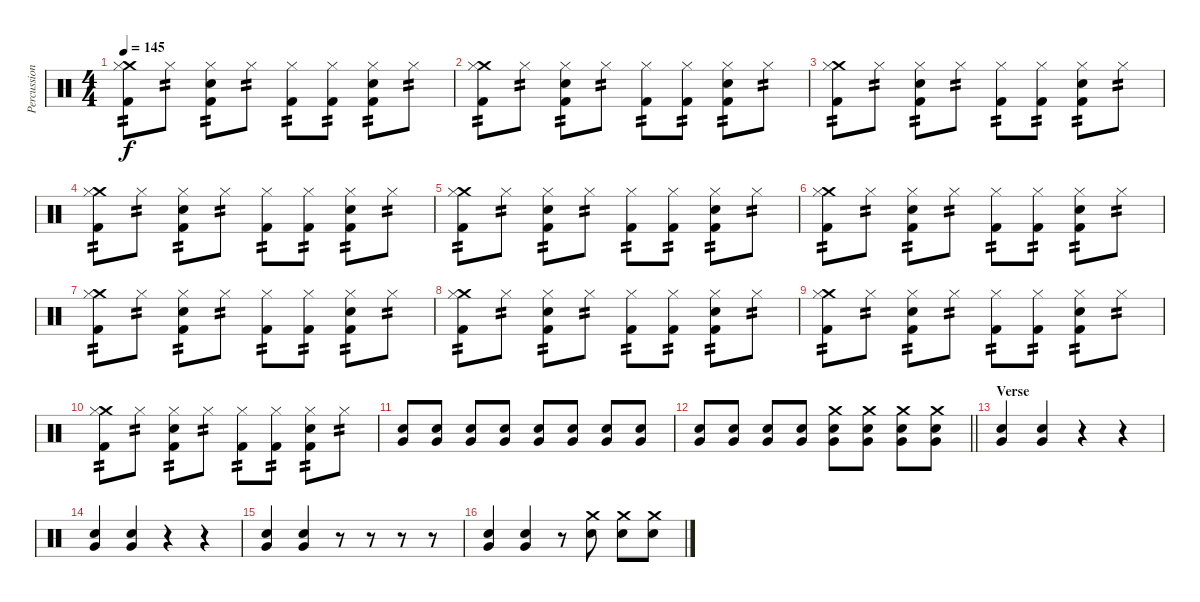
\track ("Percussion" "Percussion") {instrument percussion}
\staff {score}
\articulation defaults
\ts (4 4)
\tempo 145
\clef neutral
\ks c
("Crash medium (hit)" "Hi-Hat (closed)" "Kick (hit) 2").8{tp 2 dy f} "Hi-Hat (closed)".8{tp 2} ("Hi-Hat (closed)" "Snare (hit) 2" "Kick (hit) 2").8{tp 2} "Hi-Hat (closed)".8{tp 2} ("Hi-Hat (closed)" "Kick (hit) 2").8{tp 2} ("Hi-Hat (closed)" "Kick (hit) 2").8{tp 2} ("Hi-Hat (closed)" "Snare (hit) 2" "Kick (hit) 2").8{tp 2} "Hi-Hat (closed)".8{tp 2} |
("Crash medium (hit)" "Hi-Hat (closed)" "Kick (hit) 2").8{tp 2} "Hi-Hat (closed)".8{tp 2} ("Hi-Hat (closed)" "Snare (hit) 2" "Kick (hit) 2").8{tp 2} "Hi-Hat (closed)".8{tp 2} ("Hi-Hat (closed)" "Kick (hit) 2").8{tp 2} ("Hi-Hat (closed)" "Kick (hit) 2").8{tp 2} ("Hi-Hat (closed)" "Snare (hit) 2" "Kick (hit) 2").8{tp 2} "Hi-Hat (closed)".8{tp 2} |
("Crash medium (hit)" "Hi-Hat (closed)" "Kick (hit) 2").8{tp 2} "Hi-Hat (closed)".8{tp 2} ("Hi-Hat (closed)" "Snare (hit) 2" "Kick (hit) 2").8{tp 2} "Hi-Hat (closed)".8{tp 2} ("Hi-Hat (closed)" "Kick (hit) 2").8{tp 2} ("Hi-Hat (closed)" "Kick (hit) 2").8{tp 2} ("Hi-Hat (closed)" "Snare (hit) 2" "Kick (hit) 2").8{tp 2} "Hi-Hat (closed)".8{tp 2} |
("Crash medium (hit)" "Hi-Hat (closed)" "Kick (hit) 2").8{tp 2} "Hi-Hat (closed)".8{tp 2} ("Hi-Hat (closed)" "Snare (hit) 2" "Kick (hit) 2").8{tp 2} "Hi-Hat (closed)".8{tp 2} ("Hi-Hat (closed)" "Kick (hit) 2").8{tp 2} ("Hi-Hat (closed)" "Kick (hit) 2").8{tp 2} ("Hi-Hat (closed)" "Snare (hit) 2" "Kick (hit) 2").8{tp 2} "Hi-Hat (closed)".8{tp 2} |
("Crash medium (hit)" "Hi-Hat (closed)" "Kick (hit) 2").8{tp 2} "Hi-Hat (closed)".8{tp 2} ("Hi-Hat (closed)" "Snare (hit) 2" "Kick (hit) 2").8{tp 2} "Hi-Hat (closed)".8{tp 2} ("Hi-Hat (closed)" "Kick (hit) 2").8{tp 2} ("Hi-Hat (closed)" "Kick (hit) 2").8{tp 2} ("Hi-Hat (closed)" "Snare (hit) 2" "Kick (hit) 2").8{tp 2} "Hi-Hat (closed)".8{tp 2} |
("Crash medium (hit)" "Hi-Hat (closed)" "Kick (hit) 2").8{tp 2} "Hi-Hat (closed)".8{tp 2} ("Hi-Hat (closed)" "Snare (hit) 2" "Kick (hit) 2").8{tp 2} "Hi-Hat (closed)".8{tp 2} ("Hi-Hat (closed)" "Kick (hit) 2").8{tp 2} ("Hi-Hat (closed)" "Kick (hit) 2").8{tp 2} ("Hi-Hat (closed)" "Snare (hit) 2" "Kick (hit) 2").8{tp 2} "Hi-Hat (closed)".8{tp 2} |
("Crash medium (hit)" "Hi-Hat (closed)" "Kick (hit) 2").8{tp 2} "Hi-Hat (closed)".8{tp 2} ("Hi-Hat (closed)" "Snare (hit) 2" "Kick (hit) 2").8{tp 2} "Hi-Hat (closed)".8{tp 2} ("Hi-Hat (closed)" "Kick (hit) 2").8{tp 2} ("Hi-Hat (closed)" "Kick (hit) 2").8{tp 2} ("Hi-Hat (closed)" "Snare (hit) 2" "Kick (hit) 2").8{tp 2} "Hi-Hat (closed)".8{tp 2} |
("Crash medium (hit)" "Hi-Hat (closed)" "Kick (hit) 2").8{tp 2} "Hi-Hat (closed)".8{tp 2} ("Hi-Hat (closed)" "Snare (hit) 2" "Kick (hit) 2").8{tp 2} "Hi-Hat (closed)".8{tp 2} ("Hi-Hat (closed)" "Kick (hit) 2").8{tp 2} ("Hi-Hat (closed)" "Kick (hit) 2").8{tp 2} ("Hi-Hat (closed)" "Snare (hit) 2" "Kick (hit) 2").8{tp 2} "Hi-Hat (closed)".8{tp 2} |
("Crash medium (hit)" "Hi-Hat (closed)" "Kick (hit) 2").8{tp 2} "Hi-Hat (closed)".8{tp 2} ("Hi-Hat (closed)" "Snare (hit) 2" "Kick (hit) 2").8{tp 2} "Hi-Hat (closed)".8{tp 2} ("Hi-Hat (closed)" "Kick (hit) 2").8{tp 2} ("Hi-Hat (closed)" "Kick (hit) 2").8{tp 2} ("Hi-Hat (closed)" "Snare (hit) 2" "Kick (hit) 2").8{tp 2} "Hi-Hat (closed)".8{tp 2} |
("Crash medium (hit)" "Hi-Hat (closed)" "Kick (hit) 2").8{tp 2} "Hi-Hat (closed)".8{tp 2} ("Hi-Hat (closed)" "Snare (hit) 2" "Kick (hit) 2").8{tp 2} "Hi-Hat (closed)".8{tp 2} ("Hi-Hat (closed)" "Kick (hit) 2").8{tp 2} ("Hi-Hat (closed)" "Kick (hit) 2").8{tp 2} ("Hi-Hat (closed)" "Snare (hit) 2" "Kick (hit) 2").8{tp 2} "Hi-Hat (closed)".8{tp 2} |
("Very Low Tom (hit)" "Snare (hit) 2").8 ("Very Low Tom (hit)" "Snare (hit) 2").8 ("Very Low Tom (hit)" "Snare (hit) 2").8 ("Very Low Tom (hit)" "Snare (hit) 2").8 ("Very Low Tom (hit)" "Snare (hit) 2").8 ("Very Low Tom (hit)" "Snare (hit) 2").8 ("Very Low Tom (hit)" "Snare (hit) 2").8 ("Very Low Tom (hit)" "Snare (hit) 2").8 |
\barLineRight lightlight
("Very Low Tom (hit)" "Snare (hit) 2").8 ("Very Low Tom (hit)" "Snare (hit) 2").8 ("Very Low Tom (hit)" "Snare (hit) 2").8 ("Very Low Tom (hit)" "Snare (hit) 2").8 ("Crash medium (hit)" "Very Low Tom (hit)" "Snare (hit) 2").8 ("Crash medium (hit)" "Very Low Tom (hit)" "Snare (hit) 2").8 ("Crash medium (hit)" "Very Low Tom (hit)" "Snare (hit) 2").8 ("Crash medium (hit)" "Very Low Tom (hit)" "Snare (hit) 2").8 |
\section ("" "Verse")
("Very Low Tom (hit)" "Snare (hit) 2").4 ("Very Low Tom (hit)" "Snare (hit) 2").4 r.4 r.4 |
("Very Low Tom (hit)" "Snare (hit) 2").4 ("Very Low Tom (hit)" "Snare (hit) 2").4 r.4 r.4 |
("Very Low Tom (hit)" "Snare (hit) 2").4 ("Very Low Tom (hit)" "Snare (hit) 2").4 r.8 r.8 r.8 r.8 |
("Very Low Tom (hit)" "Snare (hit) 2").4 ("Very Low Tom (hit)" "Snare (hit) 2").4 r.8 ("Crash medium (hit)" "Snare (hit) 2").8 ("Crash medium (hit)" "Snare (hit) 2").8 ("Crash medium (hit)" "Snare (hit) 2").8
